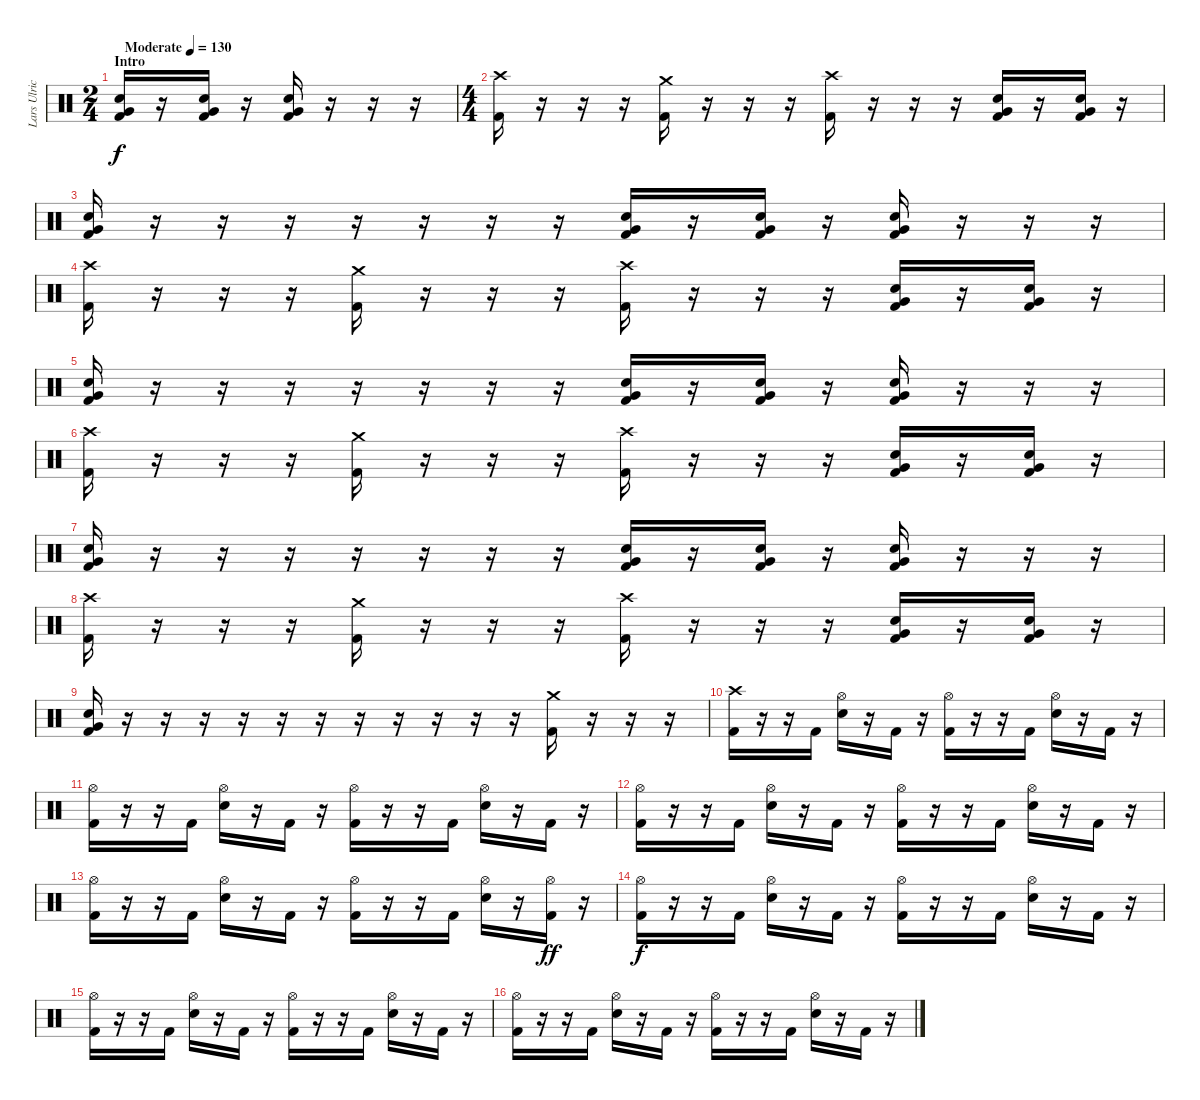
\track ("Lars Ulrich" "Lars Ulric") {instrument percussion}
\staff {score}
\articulation defaults
\ts (2 4)
\section ("" "Intro")
\tempo (130 "Moderate")
\clef neutral
\ks c
("Electric Snare (hit)" "Very Low Tom (hit)" "Kick (hit) 2").16{dy f} r.16 ("Electric Snare (hit)" "Very Low Tom (hit)" "Kick (hit) 2").16 r.16 ("Electric Snare (hit)" "Very Low Tom (hit)" "Kick (hit) 2").16 r.16 r.16 r.16 |
\ts (4 4)
("Crash high (hit)" "Kick (hit) 2").16 r.16 r.16 r.16 ("Crash medium (hit)" "Kick (hit) 2").16 r.16 r.16 r.16 ("Crash high (hit)" "Kick (hit) 2").16 r.16 r.16 r.16 ("Electric Snare (hit)" "Very Low Tom (hit)" "Kick (hit) 2").16 r.16 ("Electric Snare (hit)" "Very Low Tom (hit)" "Kick (hit) 2").16 r.16 |
("Electric Snare (hit)" "Very Low Tom (hit)" "Kick (hit) 2").16 r.16 r.16 r.16 r.16 r.16 r.16 r.16 ("Electric Snare (hit)" "Very Low Tom (hit)" "Kick (hit) 2").16 r.16 ("Electric Snare (hit)" "Very Low Tom (hit)" "Kick (hit) 2").16 r.16 ("Electric Snare (hit)" "Very Low Tom (hit)" "Kick (hit) 2").16 r.16 r.16 r.16 |
("Crash high (hit)" "Kick (hit) 2").16 r.16 r.16 r.16 ("Crash medium (hit)" "Kick (hit) 2").16 r.16 r.16 r.16 ("Crash high (hit)" "Kick (hit) 2").16 r.16 r.16 r.16 ("Electric Snare (hit)" "Very Low Tom (hit)" "Kick (hit) 2").16 r.16 ("Electric Snare (hit)" "Very Low Tom (hit)" "Kick (hit) 2").16 r.16 |
("Electric Snare (hit)" "Very Low Tom (hit)" "Kick (hit) 2").16 r.16 r.16 r.16 r.16 r.16 r.16 r.16 ("Electric Snare (hit)" "Very Low Tom (hit)" "Kick (hit) 2").16 r.16 ("Electric Snare (hit)" "Very Low Tom (hit)" "Kick (hit) 2").16 r.16 ("Electric Snare (hit)" "Very Low Tom (hit)" "Kick (hit) 2").16 r.16 r.16 r.16 |
("Crash high (hit)" "Kick (hit) 2").16 r.16 r.16 r.16 ("Crash medium (hit)" "Kick (hit) 2").16 r.16 r.16 r.16 ("Crash high (hit)" "Kick (hit) 2").16 r.16 r.16 r.16 ("Electric Snare (hit)" "Very Low Tom (hit)" "Kick (hit) 2").16 r.16 ("Electric Snare (hit)" "Very Low Tom (hit)" "Kick (hit) 2").16 r.16 |
("Electric Snare (hit)" "Very Low Tom (hit)" "Kick (hit) 2").16 r.16 r.16 r.16 r.16 r.16 r.16 r.16 ("Electric Snare (hit)" "Very Low Tom (hit)" "Kick (hit) 2").16 r.16 ("Electric Snare (hit)" "Very Low Tom (hit)" "Kick (hit) 2").16 r.16 ("Electric Snare (hit)" "Very Low Tom (hit)" "Kick (hit) 2").16 r.16 r.16 r.16 |
("Crash high (hit)" "Kick (hit) 2").16 r.16 r.16 r.16 ("Crash medium (hit)" "Kick (hit) 2").16 r.16 r.16 r.16 ("Crash high (hit)" "Kick (hit) 2").16 r.16 r.16 r.16 ("Electric Snare (hit)" "Very Low Tom (hit)" "Kick (hit) 2").16 r.16 ("Electric Snare (hit)" "Very Low Tom (hit)" "Kick (hit) 2").16 r.16 |
("Electric Snare (hit)" "Very Low Tom (hit)" "Kick (hit) 2").16 r.16 r.16 r.16 r.16 r.16 r.16 r.16 r.16 r.16 r.16 r.16 ("Crash medium (hit)" "Kick (hit) 2").16 r.16 r.16 r.16 |
("Crash high (hit)" "Kick (hit) 2").16 r.16 r.16 "Kick (hit) 2".16 ("Electric Snare (hit)" "Hi-Hat (open)").16 r.16 "Kick (hit) 2".16 r.16 ("Hi-Hat (open)" "Kick (hit) 2").16 r.16 r.16 "Kick (hit) 2".16 ("Electric Snare (hit)" "Hi-Hat (open)").16 r.16 "Kick (hit) 2".16 r.16 |
("Hi-Hat (open)" "Kick (hit) 2").16 r.16 r.16 "Kick (hit) 2".16 ("Electric Snare (hit)" "Hi-Hat (open)").16 r.16 "Kick (hit) 2".16 r.16 ("Hi-Hat (open)" "Kick (hit) 2").16 r.16 r.16 "Kick (hit) 2".16 ("Electric Snare (hit)" "Hi-Hat (open)").16 r.16 "Kick (hit) 2".16 r.16 |
("Hi-Hat (open)" "Kick (hit) 2").16 r.16 r.16 "Kick (hit) 2".16 ("Electric Snare (hit)" "Hi-Hat (open)").16 r.16 "Kick (hit) 2".16 r.16 ("Hi-Hat (open)" "Kick (hit) 2").16 r.16 r.16 "Kick (hit) 2".16 ("Electric Snare (hit)" "Hi-Hat (open)").16 r.16 "Kick (hit) 2".16 r.16 |
("Hi-Hat (open)" "Kick (hit) 2").16 r.16 r.16 "Kick (hit) 2".16 ("Electric Snare (hit)" "Hi-Hat (open)").16 r.16 "Kick (hit) 2".16 r.16 ("Hi-Hat (open)" "Kick (hit) 2").16 r.16 r.16 "Kick (hit) 2".16 ("Electric Snare (hit)" "Hi-Hat (open)").16 r.16 ("Hi-Hat (open)" "Kick (hit) 2").16{dy ff} r.16 |
("Hi-Hat (open)" "Kick (hit) 2").16{dy f} r.16 r.16 "Kick (hit) 2".16 ("Electric Snare (hit)" "Hi-Hat (open)").16 r.16 "Kick (hit) 2".16 r.16 ("Hi-Hat (open)" "Kick (hit) 2").16 r.16 r.16 "Kick (hit) 2".16 ("Electric Snare (hit)" "Hi-Hat (open)").16 r.16 "Kick (hit) 2".16 r.16 |
("Hi-Hat (open)" "Kick (hit) 2").16 r.16 r.16 "Kick (hit) 2".16 ("Electric Snare (hit)" "Hi-Hat (open)").16 r.16 "Kick (hit) 2".16 r.16 ("Hi-Hat (open)" "Kick (hit) 2").16 r.16 r.16 "Kick (hit) 2".16 ("Electric Snare (hit)" "Hi-Hat (open)").16 r.16 "Kick (hit) 2".16 r.16 |
("Hi-Hat (open)" "Kick (hit) 2").16 r.16 r.16 "Kick (hit) 2".16 ("Electric Snare (hit)" "Hi-Hat (open)").16 r.16 "Kick (hit) 2".16 r.16 ("Hi-Hat (open)" "Kick (hit) 2").16 r.16 r.16 "Kick (hit) 2".16 ("Electric Snare (hit)" "Hi-Hat (open)").16 r.16 "Kick (hit) 2".16 r.16
